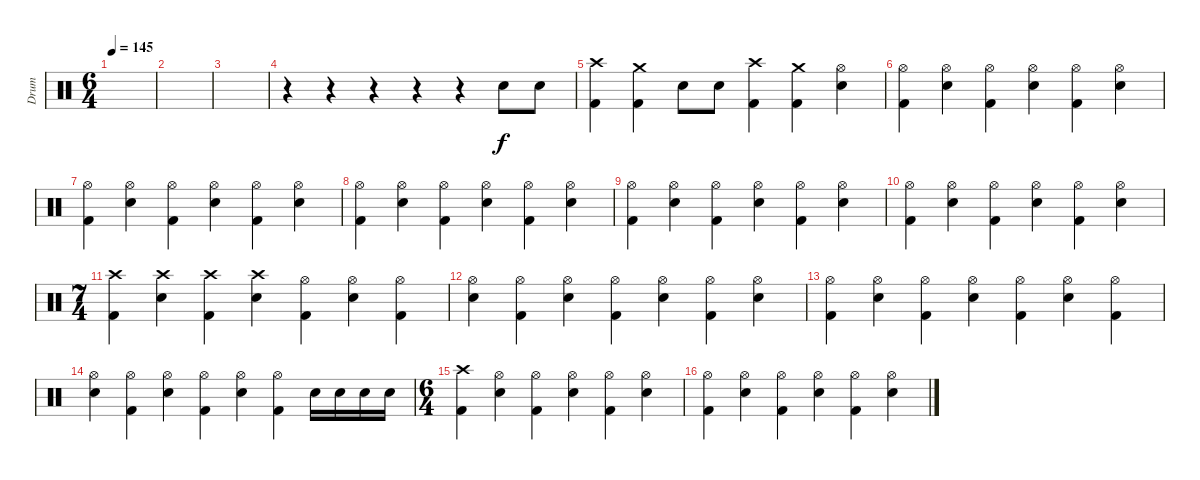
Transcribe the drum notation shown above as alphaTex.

\track ("Drum" "Drum") {instrument percussion}
\staff {score}
\articulation defaults
\ts (6 4)
\tempo 145
\clef neutral
\ks c
|
|
|
r.4 r.4 r.4 r.4 r.4 "Snare (hit) 2".8 "Snare (hit) 2".8 |
("Crash high (hit)" "Kick (hit) 2").4 ("Crash medium (hit)" "Kick (hit) 2").4 "Snare (hit) 2".8 "Snare (hit) 2".8 ("Crash high (hit)" "Kick (hit) 2").4 ("Crash medium (hit)" "Kick (hit) 2").4 ("Hi-Hat (open)" "Snare (hit) 2").4 |
("Hi-Hat (open)" "Kick (hit) 2").4 ("Hi-Hat (open)" "Snare (hit) 2").4 ("Hi-Hat (open)" "Kick (hit) 2").4 ("Hi-Hat (open)" "Snare (hit) 2").4 ("Hi-Hat (open)" "Kick (hit) 2").4 ("Hi-Hat (open)" "Snare (hit) 2").4 |
("Hi-Hat (open)" "Kick (hit) 2").4 ("Hi-Hat (open)" "Snare (hit) 2").4 ("Hi-Hat (open)" "Kick (hit) 2").4 ("Hi-Hat (open)" "Snare (hit) 2").4 ("Hi-Hat (open)" "Kick (hit) 2").4 ("Hi-Hat (open)" "Snare (hit) 2").4 |
("Hi-Hat (open)" "Kick (hit) 2").4 ("Hi-Hat (open)" "Snare (hit) 2").4 ("Hi-Hat (open)" "Kick (hit) 2").4 ("Hi-Hat (open)" "Snare (hit) 2").4 ("Hi-Hat (open)" "Kick (hit) 2").4 ("Hi-Hat (open)" "Snare (hit) 2").4 |
("Hi-Hat (open)" "Kick (hit) 2").4 ("Hi-Hat (open)" "Snare (hit) 2").4 ("Hi-Hat (open)" "Kick (hit) 2").4 ("Hi-Hat (open)" "Snare (hit) 2").4 ("Hi-Hat (open)" "Kick (hit) 2").4 ("Hi-Hat (open)" "Snare (hit) 2").4 |
("Hi-Hat (open)" "Kick (hit) 2").4 ("Hi-Hat (open)" "Snare (hit) 2").4 ("Hi-Hat (open)" "Kick (hit) 2").4 ("Hi-Hat (open)" "Snare (hit) 2").4 ("Hi-Hat (open)" "Kick (hit) 2").4 ("Hi-Hat (open)" "Snare (hit) 2").4 |
\ts (7 4)
("Crash high (hit)" "Kick (hit) 2").4 ("Crash high (hit)" "Snare (hit) 2").4 ("Crash high (hit)" "Kick (hit) 2").4 ("Crash high (hit)" "Snare (hit) 2").4 ("Hi-Hat (open)" "Kick (hit) 2").4 ("Hi-Hat (open)" "Snare (hit) 2").4 ("Hi-Hat (open)" "Kick (hit) 2").4 |
("Hi-Hat (open)" "Snare (hit) 2").4 ("Hi-Hat (open)" "Kick (hit) 2").4 ("Hi-Hat (open)" "Snare (hit) 2").4 ("Hi-Hat (open)" "Kick (hit) 2").4 ("Hi-Hat (open)" "Snare (hit) 2").4 ("Hi-Hat (open)" "Kick (hit) 2").4 ("Hi-Hat (open)" "Snare (hit) 2").4 |
("Hi-Hat (open)" "Kick (hit) 2").4 ("Hi-Hat (open)" "Snare (hit) 2").4 ("Hi-Hat (open)" "Kick (hit) 2").4 ("Hi-Hat (open)" "Snare (hit) 2").4 ("Hi-Hat (open)" "Kick (hit) 2").4 ("Hi-Hat (open)" "Snare (hit) 2").4 ("Hi-Hat (open)" "Kick (hit) 2").4 |
("Hi-Hat (open)" "Snare (hit) 2").4 ("Hi-Hat (open)" "Kick (hit) 2").4 ("Hi-Hat (open)" "Snare (hit) 2").4 ("Hi-Hat (open)" "Kick (hit) 2").4 ("Hi-Hat (open)" "Snare (hit) 2").4 ("Hi-Hat (open)" "Kick (hit) 2").4 "Snare (hit) 2".16 "Snare (hit) 2".16 "Snare (hit) 2".16 "Snare (hit) 2".16 |
\ts (6 4)
("Crash high (hit)" "Kick (hit) 2").4 ("Hi-Hat (open)" "Snare (hit) 2").4 ("Hi-Hat (open)" "Kick (hit) 2").4 ("Hi-Hat (open)" "Snare (hit) 2").4 ("Hi-Hat (open)" "Kick (hit) 2").4 ("Hi-Hat (open)" "Snare (hit) 2").4 |
("Hi-Hat (open)" "Kick (hit) 2").4 ("Hi-Hat (open)" "Snare (hit) 2").4 ("Hi-Hat (open)" "Kick (hit) 2").4 ("Hi-Hat (open)" "Snare (hit) 2").4 ("Hi-Hat (open)" "Kick (hit) 2").4 ("Hi-Hat (open)" "Snare (hit) 2").4
